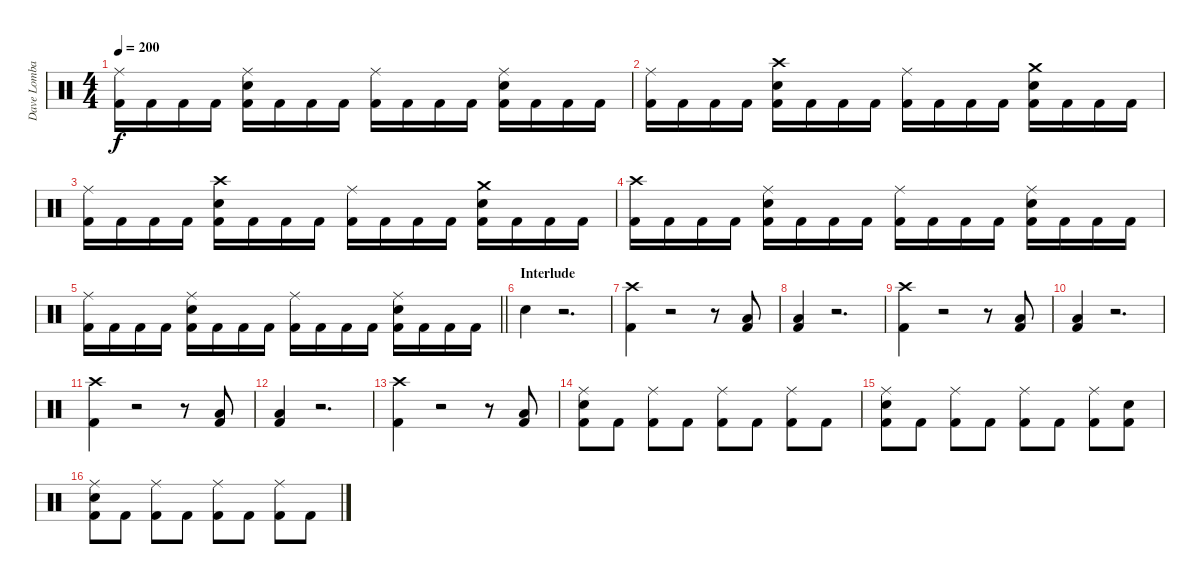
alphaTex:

\track ("Dave Lombardo (Drums)" "Dave Lomba") {instrument percussion}
\staff {score}
\articulation defaults
\ts (4 4)
\tempo 200
\clef neutral
\ks c
("Ride (middle)" "Kick (hit) 2").16{dy f} "Kick (hit) 2".16 "Kick (hit) 2".16 "Kick (hit) 2".16 ("Ride (middle)" "Snare (hit) 2" "Kick (hit) 2").16 "Kick (hit) 2".16 "Kick (hit) 2".16 "Kick (hit) 2".16 ("Ride (middle)" "Kick (hit) 2").16 "Kick (hit) 2".16 "Kick (hit) 2".16 "Kick (hit) 2".16 ("Ride (middle)" "Snare (hit) 2" "Kick (hit) 2").16 "Kick (hit) 2".16 "Kick (hit) 2".16 "Kick (hit) 2".16 |
("Ride (middle)" "Kick (hit) 2").16 "Kick (hit) 2".16 "Kick (hit) 2".16 "Kick (hit) 2".16 ("Crash high (hit)" "Snare (hit) 2" "Kick (hit) 2").16 "Kick (hit) 2".16 "Kick (hit) 2".16 "Kick (hit) 2".16 ("Ride (middle)" "Kick (hit) 2").16 "Kick (hit) 2".16 "Kick (hit) 2".16 "Kick (hit) 2".16 ("Crash medium (hit)" "Snare (hit) 2" "Kick (hit) 2").16 "Kick (hit) 2".16 "Kick (hit) 2".16 "Kick (hit) 2".16 |
("Ride (middle)" "Kick (hit) 2").16 "Kick (hit) 2".16 "Kick (hit) 2".16 "Kick (hit) 2".16 ("Crash high (hit)" "Snare (hit) 2" "Kick (hit) 2").16 "Kick (hit) 2".16 "Kick (hit) 2".16 "Kick (hit) 2".16 ("Ride (middle)" "Kick (hit) 2").16 "Kick (hit) 2".16 "Kick (hit) 2".16 "Kick (hit) 2".16 ("Crash medium (hit)" "Snare (hit) 2" "Kick (hit) 2").16 "Kick (hit) 2".16 "Kick (hit) 2".16 "Kick (hit) 2".16 |
("Crash high (hit)" "Kick (hit) 2").16 "Kick (hit) 2".16 "Kick (hit) 2".16 "Kick (hit) 2".16 ("Ride (middle)" "Snare (hit) 2" "Kick (hit) 2").16 "Kick (hit) 2".16 "Kick (hit) 2".16 "Kick (hit) 2".16 ("Ride (middle)" "Kick (hit) 2").16 "Kick (hit) 2".16 "Kick (hit) 2".16 "Kick (hit) 2".16 ("Ride (middle)" "Snare (hit) 2" "Kick (hit) 2").16 "Kick (hit) 2".16 "Kick (hit) 2".16 "Kick (hit) 2".16 |
\barLineRight lightlight
("Ride (middle)" "Kick (hit) 2").16 "Kick (hit) 2".16 "Kick (hit) 2".16 "Kick (hit) 2".16 ("Ride (middle)" "Snare (hit) 2" "Kick (hit) 2").16 "Kick (hit) 2".16 "Kick (hit) 2".16 "Kick (hit) 2".16 ("Ride (middle)" "Kick (hit) 2").16 "Kick (hit) 2".16 "Kick (hit) 2".16 "Kick (hit) 2".16 ("Ride (middle)" "Snare (hit) 2" "Kick (hit) 2").16 "Kick (hit) 2".16 "Kick (hit) 2".16 "Kick (hit) 2".16 |
\section ("" "Interlude")
"Snare (hit) 2".4 r.2{d} |
("Crash high (hit)" "Kick (hit) 2").4 r.2 r.8 ("Low Tom (hit)" "Kick (hit) 2").8 |
("Low Tom (hit)" "Kick (hit) 2").4 r.2{d} |
("Crash high (hit)" "Kick (hit) 2").4 r.2 r.8 ("Low Tom (hit)" "Kick (hit) 2").8 |
("Low Tom (hit)" "Kick (hit) 2").4 r.2{d} |
("Crash high (hit)" "Kick (hit) 2").4 r.2 r.8 ("Low Tom (hit)" "Kick (hit) 2").8 |
("Low Tom (hit)" "Kick (hit) 2").4 r.2{d} |
("Crash high (hit)" "Kick (hit) 2").4 r.2 r.8 ("Low Tom (hit)" "Kick (hit) 2").8 |
("Ride (middle)" "Snare (hit) 2" "Kick (hit) 2").8 "Kick (hit) 2".8 ("Ride (middle)" "Kick (hit) 2").8 "Kick (hit) 2".8 ("Ride (middle)" "Kick (hit) 2").8 "Kick (hit) 2".8 ("Ride (middle)" "Kick (hit) 2").8 "Kick (hit) 2".8 |
("Ride (middle)" "Snare (hit) 2" "Kick (hit) 2").8 "Kick (hit) 2".8 ("Ride (middle)" "Kick (hit) 2").8 "Kick (hit) 2".8 ("Ride (middle)" "Kick (hit) 2").8 "Kick (hit) 2".8 ("Ride (middle)" "Kick (hit) 2").8 ("Snare (hit) 2" "Kick (hit) 2").8 |
("Ride (middle)" "Snare (hit) 2" "Kick (hit) 2").8 "Kick (hit) 2".8 ("Ride (middle)" "Kick (hit) 2").8 "Kick (hit) 2".8 ("Ride (middle)" "Kick (hit) 2").8 "Kick (hit) 2".8 ("Ride (middle)" "Kick (hit) 2").8 "Kick (hit) 2".8
